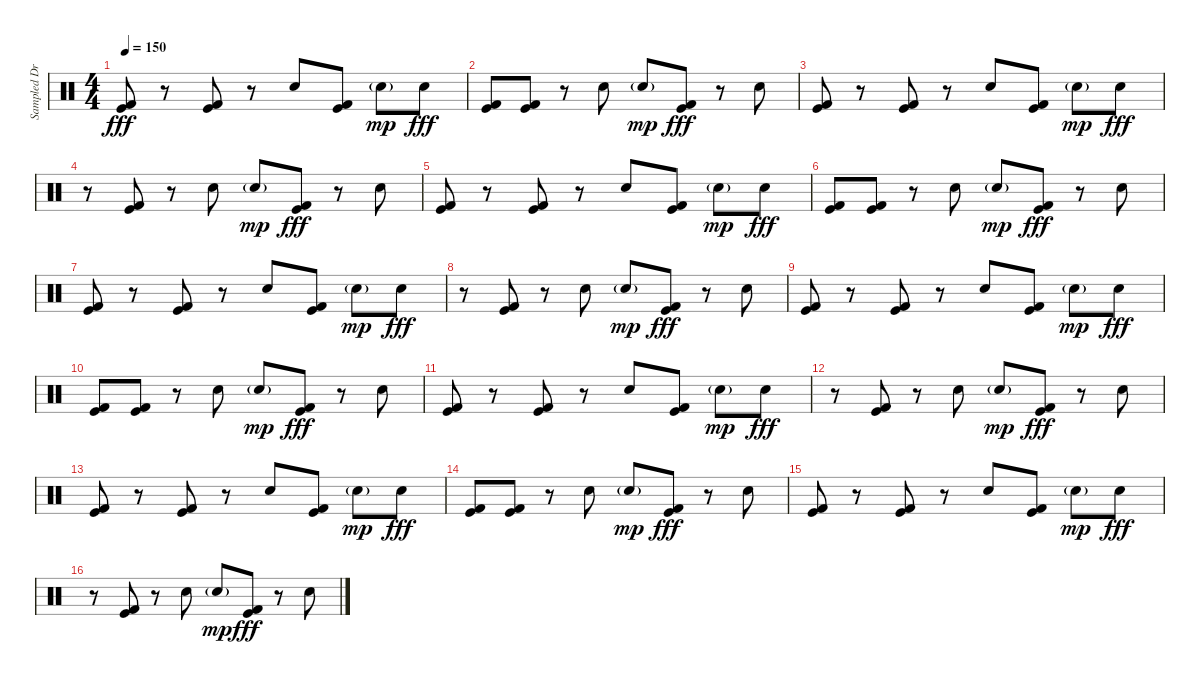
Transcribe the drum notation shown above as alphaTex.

\track ("Sampled Drums" "Sampled Dr") {instrument percussion}
\staff {score}
\articulation defaults
\ts (4 4)
\tempo 150
\clef neutral
\ks c
("Kick (hit)" "Kick (hit) 2").8{dy fff} r.8 ("Kick (hit)" "Kick (hit) 2").8 r.8 "Electric Snare (hit)".8 ("Kick (hit)" "Kick (hit) 2").8 "Electric Snare (hit)"{g}.8{dy mp} "Electric Snare (hit)".8{dy fff} |
("Kick (hit)" "Kick (hit) 2").8 ("Kick (hit)" "Kick (hit) 2").8 r.8 "Electric Snare (hit)".8 "Electric Snare (hit)"{g}.8{dy mp} ("Kick (hit)" "Kick (hit) 2").8{dy fff} r.8 "Electric Snare (hit)".8 |
("Kick (hit)" "Kick (hit) 2").8 r.8 ("Kick (hit)" "Kick (hit) 2").8 r.8 "Electric Snare (hit)".8 ("Kick (hit)" "Kick (hit) 2").8 "Electric Snare (hit)"{g}.8{dy mp} "Electric Snare (hit)".8{dy fff} |
r.8 ("Kick (hit)" "Kick (hit) 2").8 r.8 "Electric Snare (hit)".8 "Electric Snare (hit)"{g}.8{dy mp} ("Kick (hit)" "Kick (hit) 2").8{dy fff} r.8 "Electric Snare (hit)".8 |
("Kick (hit)" "Kick (hit) 2").8 r.8 ("Kick (hit)" "Kick (hit) 2").8 r.8 "Electric Snare (hit)".8 ("Kick (hit)" "Kick (hit) 2").8 "Electric Snare (hit)"{g}.8{dy mp} "Electric Snare (hit)".8{dy fff} |
("Kick (hit)" "Kick (hit) 2").8 ("Kick (hit)" "Kick (hit) 2").8 r.8 "Electric Snare (hit)".8 "Electric Snare (hit)"{g}.8{dy mp} ("Kick (hit)" "Kick (hit) 2").8{dy fff} r.8 "Electric Snare (hit)".8 |
("Kick (hit)" "Kick (hit) 2").8 r.8 ("Kick (hit)" "Kick (hit) 2").8 r.8 "Electric Snare (hit)".8 ("Kick (hit)" "Kick (hit) 2").8 "Electric Snare (hit)"{g}.8{dy mp} "Electric Snare (hit)".8{dy fff} |
r.8 ("Kick (hit)" "Kick (hit) 2").8 r.8 "Electric Snare (hit)".8 "Electric Snare (hit)"{g}.8{dy mp} ("Kick (hit)" "Kick (hit) 2").8{dy fff} r.8 "Electric Snare (hit)".8 |
("Kick (hit)" "Kick (hit) 2").8 r.8 ("Kick (hit)" "Kick (hit) 2").8 r.8 "Electric Snare (hit)".8 ("Kick (hit)" "Kick (hit) 2").8 "Electric Snare (hit)"{g}.8{dy mp} "Electric Snare (hit)".8{dy fff} |
("Kick (hit)" "Kick (hit) 2").8 ("Kick (hit)" "Kick (hit) 2").8 r.8 "Electric Snare (hit)".8 "Electric Snare (hit)"{g}.8{dy mp} ("Kick (hit)" "Kick (hit) 2").8{dy fff} r.8 "Electric Snare (hit)".8 |
("Kick (hit)" "Kick (hit) 2").8 r.8 ("Kick (hit)" "Kick (hit) 2").8 r.8 "Electric Snare (hit)".8 ("Kick (hit)" "Kick (hit) 2").8 "Electric Snare (hit)"{g}.8{dy mp} "Electric Snare (hit)".8{dy fff} |
r.8 ("Kick (hit)" "Kick (hit) 2").8 r.8 "Electric Snare (hit)".8 "Electric Snare (hit)"{g}.8{dy mp} ("Kick (hit)" "Kick (hit) 2").8{dy fff} r.8 "Electric Snare (hit)".8 |
("Kick (hit)" "Kick (hit) 2").8 r.8 ("Kick (hit)" "Kick (hit) 2").8 r.8 "Electric Snare (hit)".8 ("Kick (hit)" "Kick (hit) 2").8 "Electric Snare (hit)"{g}.8{dy mp} "Electric Snare (hit)".8{dy fff} |
("Kick (hit)" "Kick (hit) 2").8 ("Kick (hit)" "Kick (hit) 2").8 r.8 "Electric Snare (hit)".8 "Electric Snare (hit)"{g}.8{dy mp} ("Kick (hit)" "Kick (hit) 2").8{dy fff} r.8 "Electric Snare (hit)".8 |
("Kick (hit)" "Kick (hit) 2").8 r.8 ("Kick (hit)" "Kick (hit) 2").8 r.8 "Electric Snare (hit)".8 ("Kick (hit)" "Kick (hit) 2").8 "Electric Snare (hit)"{g}.8{dy mp} "Electric Snare (hit)".8{dy fff} |
r.8 ("Kick (hit)" "Kick (hit) 2").8 r.8 "Electric Snare (hit)".8 "Electric Snare (hit)"{g}.8{dy mp} ("Kick (hit)" "Kick (hit) 2").8{dy fff} r.8 "Electric Snare (hit)".8
